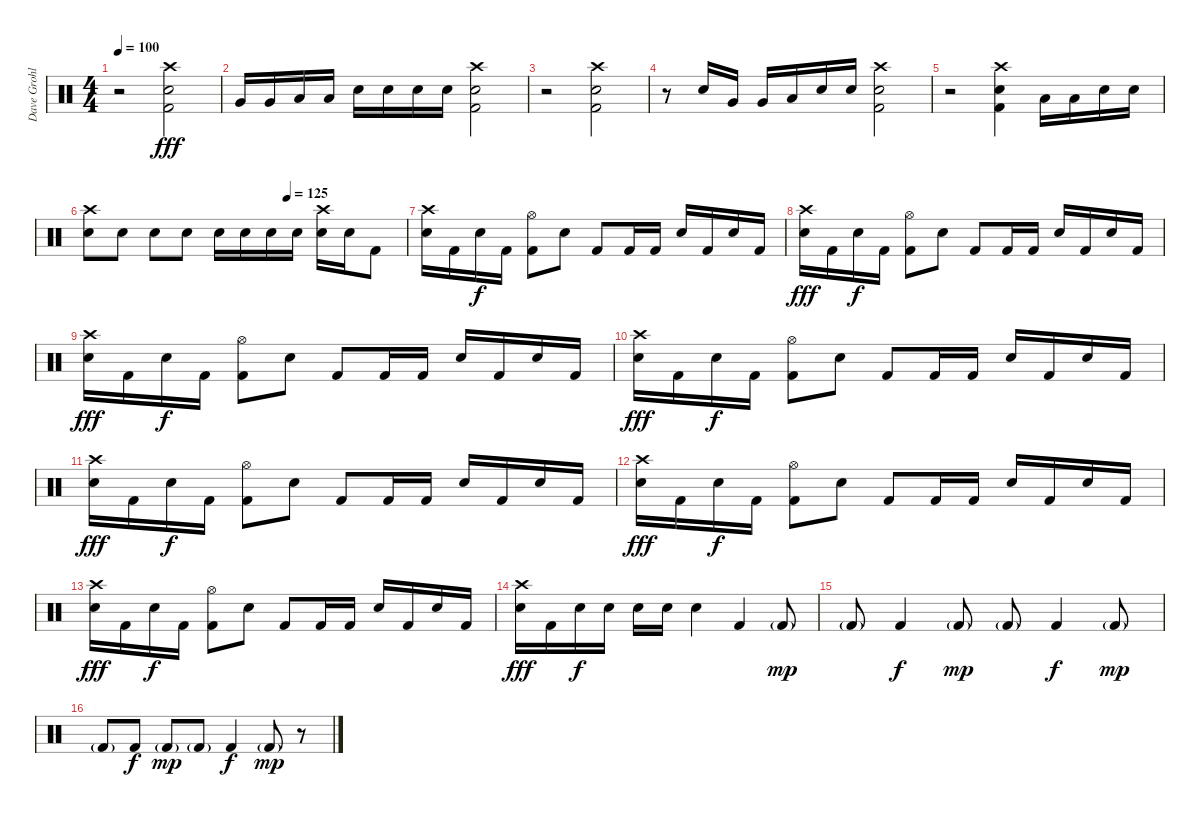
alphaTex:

\track ("Dave Grohl" "Dave Grohl") {instrument percussion}
\staff {score}
\articulation defaults
\ts (4 4)
\tempo 100
\clef neutral
\ks c
r.2{dy fff} ("Crash high (hit)" "Snare (hit) 2" "Kick (hit) 2").2 |
"Very Low Tom (hit)".16 "Very Low Tom (hit)".16 "Low Floor Tom (hit)".16 "Low Floor Tom (hit)".16 "Snare (hit) 2".16 "Snare (hit) 2".16 "Snare (hit) 2".16 "Snare (hit) 2".16 ("Crash high (hit)" "Snare (hit) 2" "Kick (hit) 2").2 |
r.2 ("Crash high (hit)" "Snare (hit) 2" "Kick (hit) 2").2 |
r.8 "Snare (hit) 2".16 "Very Low Tom (hit)".16 "Very Low Tom (hit)".16 "Low Floor Tom (hit)".16 "Snare (hit) 2".16 "Snare (hit) 2".16 ("Crash high (hit)" "Snare (hit) 2" "Kick (hit) 2").2 |
r.2 ("Crash high (hit)" "Snare (hit) 2" "Kick (hit) 2").4 "Low Floor Tom (hit)".16 "Low Floor Tom (hit)".16 "Snare (hit) 2".16 "Snare (hit) 2".16 |
\tempo (125 0.625)
("Crash high (hit)" "Snare (hit) 2").8 "Snare (hit) 2".8 "Snare (hit) 2".8 "Snare (hit) 2".8 "Snare (hit) 2".16 "Snare (hit) 2".16 "Snare (hit) 2".16 "Snare (hit) 2".16 ("Crash high (hit)" "Snare (hit) 2").16 "Snare (hit) 2".16 "Kick (hit) 2".8 |
("Crash high (hit)" "Snare (hit) 2").16 "Kick (hit) 2".16 "Snare (hit) 2".16{dy f} "Kick (hit) 2".16 ("Hi-Hat (open)" "Kick (hit) 2").8 "Snare (hit) 2".8 "Kick (hit) 2".8 "Kick (hit) 2".16 "Kick (hit) 2".16 "Snare (hit) 2".16 "Kick (hit) 2".16 "Snare (hit) 2".16 "Kick (hit) 2".16 |
("Crash high (hit)" "Snare (hit) 2").16{dy fff} "Kick (hit) 2".16 "Snare (hit) 2".16{dy f} "Kick (hit) 2".16 ("Hi-Hat (open)" "Kick (hit) 2").8 "Snare (hit) 2".8 "Kick (hit) 2".8 "Kick (hit) 2".16 "Kick (hit) 2".16 "Snare (hit) 2".16 "Kick (hit) 2".16 "Snare (hit) 2".16 "Kick (hit) 2".16 |
("Crash high (hit)" "Snare (hit) 2").16{dy fff} "Kick (hit) 2".16 "Snare (hit) 2".16{dy f} "Kick (hit) 2".16 ("Hi-Hat (open)" "Kick (hit) 2").8 "Snare (hit) 2".8 "Kick (hit) 2".8 "Kick (hit) 2".16 "Kick (hit) 2".16 "Snare (hit) 2".16 "Kick (hit) 2".16 "Snare (hit) 2".16 "Kick (hit) 2".16 |
("Crash high (hit)" "Snare (hit) 2").16{dy fff} "Kick (hit) 2".16 "Snare (hit) 2".16{dy f} "Kick (hit) 2".16 ("Hi-Hat (open)" "Kick (hit) 2").8 "Snare (hit) 2".8 "Kick (hit) 2".8 "Kick (hit) 2".16 "Kick (hit) 2".16 "Snare (hit) 2".16 "Kick (hit) 2".16 "Snare (hit) 2".16 "Kick (hit) 2".16 |
("Crash high (hit)" "Snare (hit) 2").16{dy fff} "Kick (hit) 2".16 "Snare (hit) 2".16{dy f} "Kick (hit) 2".16 ("Hi-Hat (open)" "Kick (hit) 2").8 "Snare (hit) 2".8 "Kick (hit) 2".8 "Kick (hit) 2".16 "Kick (hit) 2".16 "Snare (hit) 2".16 "Kick (hit) 2".16 "Snare (hit) 2".16 "Kick (hit) 2".16 |
("Crash high (hit)" "Snare (hit) 2").16{dy fff} "Kick (hit) 2".16 "Snare (hit) 2".16{dy f} "Kick (hit) 2".16 ("Hi-Hat (open)" "Kick (hit) 2").8 "Snare (hit) 2".8 "Kick (hit) 2".8 "Kick (hit) 2".16 "Kick (hit) 2".16 "Snare (hit) 2".16 "Kick (hit) 2".16 "Snare (hit) 2".16 "Kick (hit) 2".16 |
("Crash high (hit)" "Snare (hit) 2").16{dy fff} "Kick (hit) 2".16 "Snare (hit) 2".16{dy f} "Kick (hit) 2".16 ("Hi-Hat (open)" "Kick (hit) 2").8 "Snare (hit) 2".8 "Kick (hit) 2".8 "Kick (hit) 2".16 "Kick (hit) 2".16 "Snare (hit) 2".16 "Kick (hit) 2".16 "Snare (hit) 2".16 "Kick (hit) 2".16 |
("Crash high (hit)" "Snare (hit) 2").16{dy fff} "Kick (hit) 2".16 "Snare (hit) 2".16{dy f} "Snare (hit) 2".16 "Snare (hit) 2".16 "Snare (hit) 2".16 "Snare (hit) 2".4 "Kick (hit) 2".4 "Kick (hit) 2"{g}.8{dy mp} |
"Kick (hit) 2"{g}.8 "Kick (hit) 2".4{dy f} "Kick (hit) 2"{g}.8{dy mp} "Kick (hit) 2"{g}.8 "Kick (hit) 2".4{dy f} "Kick (hit) 2"{g}.8{dy mp} |
"Kick (hit) 2"{g}.8 "Kick (hit) 2".8{dy f} "Kick (hit) 2"{g}.8{dy mp} "Kick (hit) 2"{g}.8 "Kick (hit) 2".4{dy f} "Kick (hit) 2"{g}.8{dy mp} r.8
